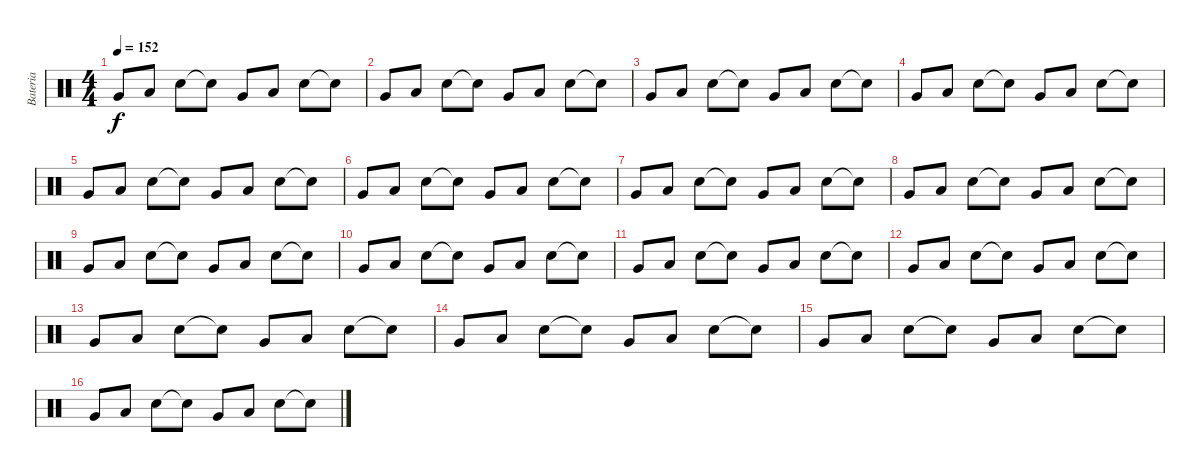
\track ("Bateria" "Bateria") {instrument percussion}
\staff {score}
\articulation defaults
\ts (4 4)
\tempo 152
\clef neutral
\ks c "Very Low Tom (hit)".8{dy f} "Low Floor Tom (hit)".8 "Snare (hit) 2".8 "Snare (hit)"{t}.8 "Very Low Tom (hit)".8 "Low Floor Tom (hit)".8 "Snare (hit) 2".8 "Snare (hit)"{t}.8
|
"Very Low Tom (hit)".8 "Low Floor Tom (hit)".8 "Snare (hit) 2".8 "Snare (hit)"{t}.8 "Very Low Tom (hit)".8 "Low Floor Tom (hit)".8 "Snare (hit) 2".8 "Snare (hit)"{t}.8 |
"Very Low Tom (hit)".8 "Low Floor Tom (hit)".8 "Snare (hit) 2".8 "Snare (hit)"{t}.8 "Very Low Tom (hit)".8 "Low Floor Tom (hit)".8 "Snare (hit) 2".8 "Snare (hit)"{t}.8 |
"Very Low Tom (hit)".8 "Low Floor Tom (hit)".8 "Snare (hit) 2".8 "Snare (hit)"{t}.8 "Very Low Tom (hit)".8 "Low Floor Tom (hit)".8 "Snare (hit) 2".8 "Snare (hit)"{t}.8 |
"Very Low Tom (hit)".8 "Low Floor Tom (hit)".8 "Snare (hit) 2".8 "Snare (hit)"{t}.8 "Very Low Tom (hit)".8 "Low Floor Tom (hit)".8 "Snare (hit) 2".8 "Snare (hit)"{t}.8 |
"Very Low Tom (hit)".8 "Low Floor Tom (hit)".8 "Snare (hit) 2".8 "Snare (hit)"{t}.8 "Very Low Tom (hit)".8 "Low Floor Tom (hit)".8 "Snare (hit) 2".8 "Snare (hit)"{t}.8 |
"Very Low Tom (hit)".8 "Low Floor Tom (hit)".8 "Snare (hit) 2".8 "Snare (hit)"{t}.8 "Very Low Tom (hit)".8 "Low Floor Tom (hit)".8 "Snare (hit) 2".8 "Snare (hit)"{t}.8 |
"Very Low Tom (hit)".8 "Low Floor Tom (hit)".8 "Snare (hit) 2".8 "Snare (hit)"{t}.8 "Very Low Tom (hit)".8 "Low Floor Tom (hit)".8 "Snare (hit) 2".8 "Snare (hit)"{t}.8 |
"Very Low Tom (hit)".8 "Low Floor Tom (hit)".8 "Snare (hit) 2".8 "Snare (hit)"{t}.8 "Very Low Tom (hit)".8 "Low Floor Tom (hit)".8 "Snare (hit) 2".8 "Snare (hit)"{t}.8 |
"Very Low Tom (hit)".8 "Low Floor Tom (hit)".8 "Snare (hit) 2".8 "Snare (hit)"{t}.8 "Very Low Tom (hit)".8 "Low Floor Tom (hit)".8 "Snare (hit) 2".8 "Snare (hit)"{t}.8 |
"Very Low Tom (hit)".8 "Low Floor Tom (hit)".8 "Snare (hit) 2".8 "Snare (hit)"{t}.8 "Very Low Tom (hit)".8 "Low Floor Tom (hit)".8 "Snare (hit) 2".8 "Snare (hit)"{t}.8 |
"Very Low Tom (hit)".8 "Low Floor Tom (hit)".8 "Snare (hit) 2".8 "Snare (hit)"{t}.8 "Very Low Tom (hit)".8 "Low Floor Tom (hit)".8 "Snare (hit) 2".8 "Snare (hit)"{t}.8 |
"Very Low Tom (hit)".8 "Low Floor Tom (hit)".8 "Snare (hit) 2".8 "Snare (hit)"{t}.8 "Very Low Tom (hit)".8 "Low Floor Tom (hit)".8 "Snare (hit) 2".8 "Snare (hit)"{t}.8 |
"Very Low Tom (hit)".8 "Low Floor Tom (hit)".8 "Snare (hit) 2".8 "Snare (hit)"{t}.8 "Very Low Tom (hit)".8 "Low Floor Tom (hit)".8 "Snare (hit) 2".8 "Snare (hit)"{t}.8 |
"Very Low Tom (hit)".8 "Low Floor Tom (hit)".8 "Snare (hit) 2".8 "Snare (hit)"{t}.8 "Very Low Tom (hit)".8 "Low Floor Tom (hit)".8 "Snare (hit) 2".8 "Snare (hit)"{t}.8 |
"Very Low Tom (hit)".8 "Low Floor Tom (hit)".8 "Snare (hit) 2".8 "Snare (hit)"{t}.8 "Very Low Tom (hit)".8 "Low Floor Tom (hit)".8 "Snare (hit) 2".8 "Snare (hit)"{t}.8
